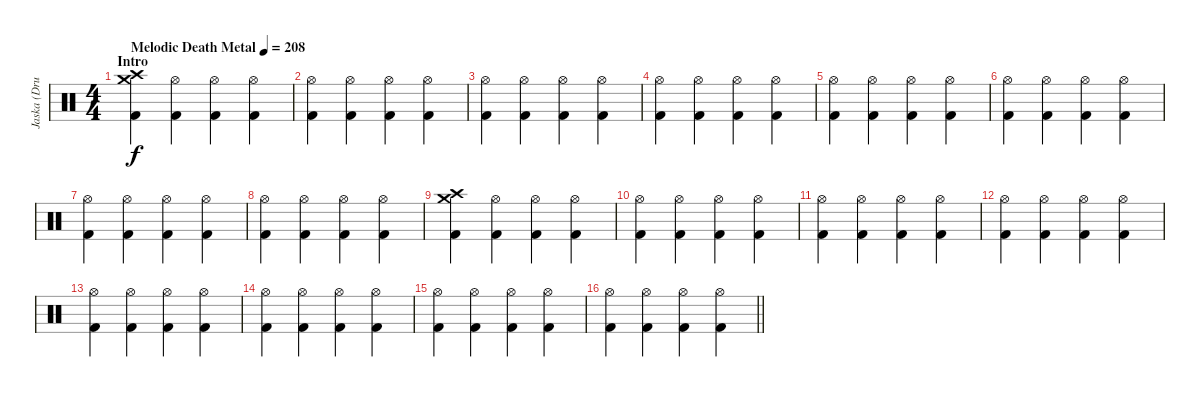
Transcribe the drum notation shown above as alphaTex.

\track ("Jaska (Drums)" "Jaska (Dru") {instrument percussion}
\staff {score}
\articulation defaults
\ts (4 4)
\section ("" "Intro")
\tempo (208 "Melodic Death Metal")
\clef neutral
\ks c
("Crash medium (hit)" "Crash high (hit)" "Kick (hit) 2").4{dy f volume 16 balance 8} ("Hi-Hat (open)" "Kick (hit) 2").4 ("Hi-Hat (open)" "Kick (hit) 2").4 ("Hi-Hat (open)" "Kick (hit) 2").4 |
("Hi-Hat (open)" "Kick (hit) 2").4 ("Hi-Hat (open)" "Kick (hit) 2").4 ("Hi-Hat (open)" "Kick (hit) 2").4 ("Hi-Hat (open)" "Kick (hit) 2").4 |
("Hi-Hat (open)" "Kick (hit) 2").4 ("Hi-Hat (open)" "Kick (hit) 2").4 ("Hi-Hat (open)" "Kick (hit) 2").4 ("Hi-Hat (open)" "Kick (hit) 2").4 |
("Hi-Hat (open)" "Kick (hit) 2").4 ("Hi-Hat (open)" "Kick (hit) 2").4 ("Hi-Hat (open)" "Kick (hit) 2").4 ("Hi-Hat (open)" "Kick (hit) 2").4 |
("Hi-Hat (open)" "Kick (hit) 2").4 ("Hi-Hat (open)" "Kick (hit) 2").4 ("Hi-Hat (open)" "Kick (hit) 2").4 ("Hi-Hat (open)" "Kick (hit) 2").4 |
("Hi-Hat (open)" "Kick (hit) 2").4 ("Hi-Hat (open)" "Kick (hit) 2").4 ("Hi-Hat (open)" "Kick (hit) 2").4 ("Hi-Hat (open)" "Kick (hit) 2").4 |
("Hi-Hat (open)" "Kick (hit) 2").4 ("Hi-Hat (open)" "Kick (hit) 2").4 ("Hi-Hat (open)" "Kick (hit) 2").4 ("Hi-Hat (open)" "Kick (hit) 2").4 |
("Hi-Hat (open)" "Kick (hit) 2").4 ("Hi-Hat (open)" "Kick (hit) 2").4 ("Hi-Hat (open)" "Kick (hit) 2").4 ("Hi-Hat (open)" "Kick (hit) 2").4 |
("Crash medium (hit)" "Crash high (hit)" "Kick (hit) 2").4 ("Hi-Hat (open)" "Kick (hit) 2").4 ("Hi-Hat (open)" "Kick (hit) 2").4 ("Hi-Hat (open)" "Kick (hit) 2").4 |
("Hi-Hat (open)" "Kick (hit) 2").4 ("Hi-Hat (open)" "Kick (hit) 2").4 ("Hi-Hat (open)" "Kick (hit) 2").4 ("Hi-Hat (open)" "Kick (hit) 2").4 |
("Hi-Hat (open)" "Kick (hit) 2").4 ("Hi-Hat (open)" "Kick (hit) 2").4 ("Hi-Hat (open)" "Kick (hit) 2").4 ("Hi-Hat (open)" "Kick (hit) 2").4 |
("Hi-Hat (open)" "Kick (hit) 2").4 ("Hi-Hat (open)" "Kick (hit) 2").4 ("Hi-Hat (open)" "Kick (hit) 2").4 ("Hi-Hat (open)" "Kick (hit) 2").4 |
("Hi-Hat (open)" "Kick (hit) 2").4 ("Hi-Hat (open)" "Kick (hit) 2").4 ("Hi-Hat (open)" "Kick (hit) 2").4 ("Hi-Hat (open)" "Kick (hit) 2").4 |
("Hi-Hat (open)" "Kick (hit) 2").4 ("Hi-Hat (open)" "Kick (hit) 2").4 ("Hi-Hat (open)" "Kick (hit) 2").4 ("Hi-Hat (open)" "Kick (hit) 2").4 |
("Hi-Hat (open)" "Kick (hit) 2").4 ("Hi-Hat (open)" "Kick (hit) 2").4 ("Hi-Hat (open)" "Kick (hit) 2").4 ("Hi-Hat (open)" "Kick (hit) 2").4 |
\barLineRight lightlight
("Hi-Hat (open)" "Kick (hit) 2").4 ("Hi-Hat (open)" "Kick (hit) 2").4 ("Hi-Hat (open)" "Kick (hit) 2").4 ("Hi-Hat (open)" "Kick (hit) 2").4
